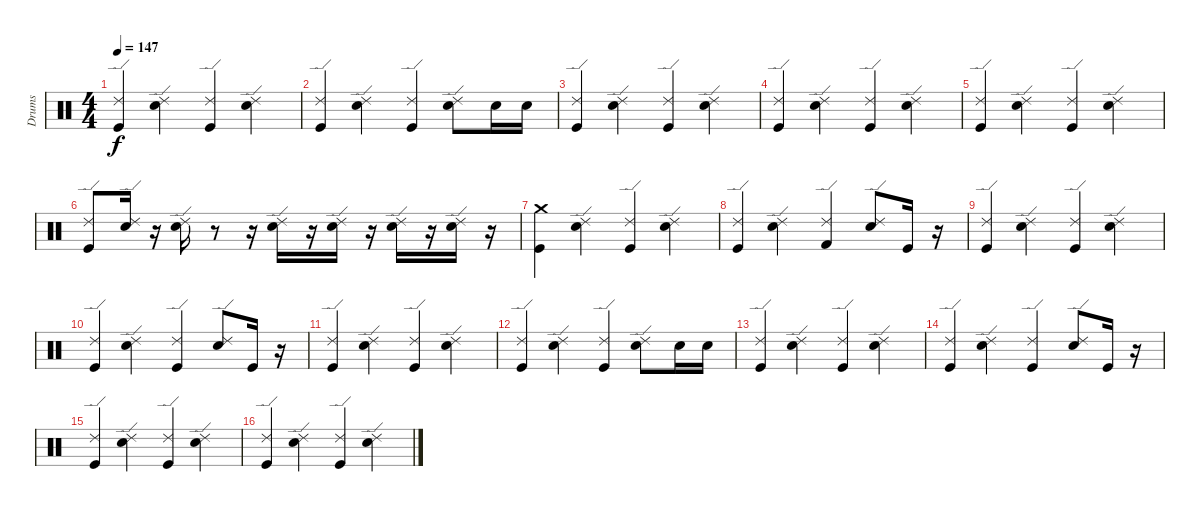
\track ("Drums" "Drums") {instrument percussion}
\staff {score}
\articulation defaults
\ts (4 4)
\tempo 147
\clef neutral
\ks c
("Ride (edge) 2" "Kick (hit)").4{dy f} ("Ride (edge) 2" "Snare (hit) 2").4 ("Ride (edge) 2" "Kick (hit)").4 ("Ride (edge) 2" "Snare (hit) 2").4 |
("Ride (edge) 2" "Kick (hit)").4 ("Ride (edge) 2" "Snare (hit) 2").4 ("Ride (edge) 2" "Kick (hit)").4 ("Ride (edge) 2" "Snare (hit) 2").8 "Snare (hit) 2".16 "Snare (hit) 2".16 |
("Ride (edge) 2" "Kick (hit)").4 ("Ride (edge) 2" "Snare (hit) 2").4 ("Ride (edge) 2" "Kick (hit)").4 ("Ride (edge) 2" "Snare (hit) 2").4 |
("Ride (edge) 2" "Kick (hit)").4 ("Ride (edge) 2" "Snare (hit) 2").4 ("Ride (edge) 2" "Kick (hit)").4 ("Snare (hit) 2" "Ride (edge) 2").4 |
("Ride (edge) 2" "Kick (hit)").4 ("Ride (edge) 2" "Snare (hit) 2").4 ("Ride (edge) 2" "Kick (hit)").4 ("Ride (edge) 2" "Snare (hit) 2").4 |
("Ride (edge) 2" "Kick (hit)").8 ("Ride (edge) 2" "Snare (hit) 2").16 r.16 ("Ride (edge) 2" "Snare (hit) 2").16 r.8 r.16 ("Ride (edge) 2" "Snare (hit) 2").16 r.16 ("Ride (edge) 2" "Snare (hit) 2").16 r.16 ("Ride (edge) 2" "Snare (hit) 2").16 r.16 ("Ride (edge) 2" "Snare (hit) 2").16 r.16 |
("Crash medium (hit)" "Kick (hit)").4 ("Ride (edge) 2" "Snare (hit) 2").4 ("Ride (edge) 2" "Kick (hit)").4 ("Ride (edge) 2" "Snare (hit) 2").4 |
("Ride (edge) 2" "Kick (hit)").4 ("Ride (edge) 2" "Snare (hit) 2").4 ("Ride (edge) 2" "Kick (hit) 2").4 ("Ride (edge) 2" "Snare (hit) 2").8 "Kick (hit)".16 r.16 |
("Ride (edge) 2" "Kick (hit)").4 ("Ride (edge) 2" "Snare (hit) 2").4 ("Ride (edge) 2" "Kick (hit)").4 ("Ride (edge) 2" "Snare (hit) 2").4 |
("Ride (edge) 2" "Kick (hit)").4 ("Ride (edge) 2" "Snare (hit) 2").4 ("Ride (edge) 2" "Kick (hit)").4 ("Ride (edge) 2" "Snare (hit) 2").8 "Kick (hit)".16 r.16 |
("Ride (edge) 2" "Kick (hit)").4 ("Ride (edge) 2" "Snare (hit) 2").4 ("Ride (edge) 2" "Kick (hit)").4 ("Ride (edge) 2" "Snare (hit) 2").4 |
("Ride (edge) 2" "Kick (hit)").4 ("Ride (edge) 2" "Snare (hit) 2").4 ("Ride (edge) 2" "Kick (hit)").4 ("Ride (edge) 2" "Snare (hit) 2").8 "Snare (hit) 2".16 "Snare (hit) 2".16 |
("Ride (edge) 2" "Kick (hit)").4 ("Ride (edge) 2" "Snare (hit) 2").4 ("Ride (edge) 2" "Kick (hit)").4 ("Ride (edge) 2" "Snare (hit) 2").4 |
("Ride (edge) 2" "Kick (hit)").4 ("Ride (edge) 2" "Snare (hit) 2").4 ("Ride (edge) 2" "Kick (hit)").4 ("Ride (edge) 2" "Snare (hit) 2").8 "Kick (hit)".16 r.16 |
("Ride (edge) 2" "Kick (hit)").4 ("Ride (edge) 2" "Snare (hit) 2").4 ("Ride (edge) 2" "Kick (hit)").4 ("Ride (edge) 2" "Snare (hit) 2").4 |
("Ride (edge) 2" "Kick (hit)").4 ("Ride (edge) 2" "Snare (hit) 2").4 ("Ride (edge) 2" "Kick (hit)").4 ("Ride (edge) 2" "Snare (hit) 2").4
